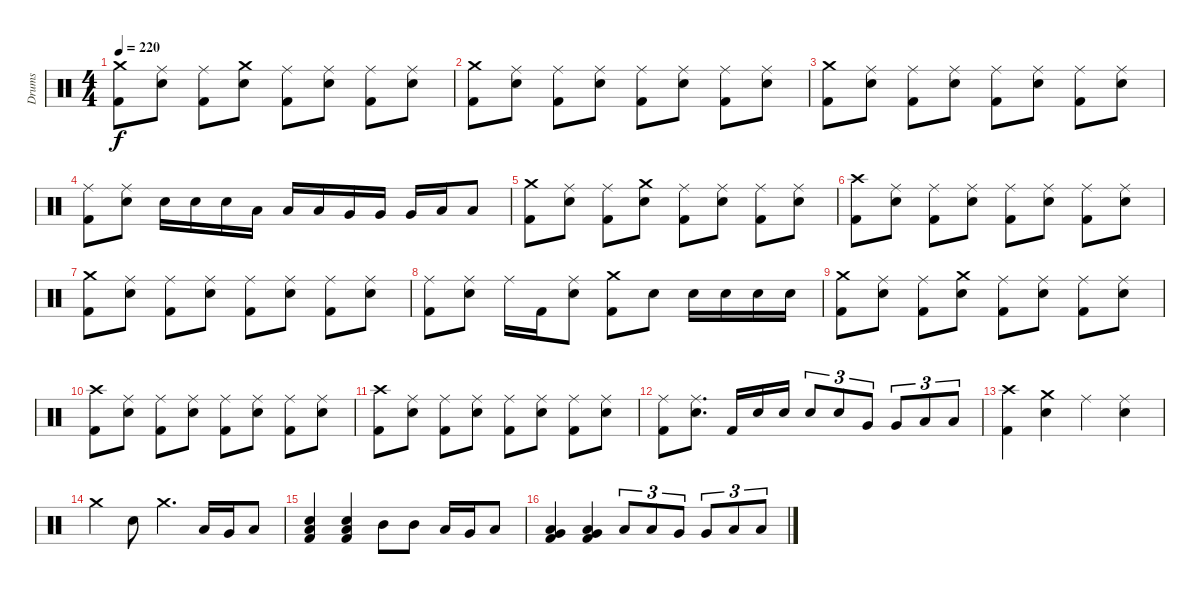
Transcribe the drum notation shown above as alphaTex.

\track ("Drums" "Drums") {instrument percussion}
\staff {score}
\articulation defaults
\ts (4 4)
\tempo 220
\clef neutral
\ks c
("Crash medium (hit)" "Kick (hit) 2").8{dy f} ("Ride (middle)" "Electric Snare (hit)").8 ("Ride (middle)" "Kick (hit) 2").8 ("Crash medium (hit)" "Electric Snare (hit)").8 ("Ride (middle)" "Kick (hit) 2").8 ("Ride (middle)" "Electric Snare (hit)").8 ("Ride (middle)" "Kick (hit) 2").8 ("Ride (middle)" "Electric Snare (hit)").8 |
("Crash medium (hit)" "Kick (hit) 2").8 ("Ride (middle)" "Electric Snare (hit)").8 ("Ride (middle)" "Kick (hit) 2").8 ("Ride (middle)" "Electric Snare (hit)").8 ("Ride (middle)" "Kick (hit) 2").8 ("Ride (middle)" "Electric Snare (hit)").8 ("Ride (middle)" "Kick (hit) 2").8 ("Ride (middle)" "Electric Snare (hit)").8 |
("Crash medium (hit)" "Kick (hit) 2").8 ("Ride (middle)" "Electric Snare (hit)").8 ("Ride (middle)" "Kick (hit) 2").8 ("Ride (middle)" "Electric Snare (hit)").8 ("Ride (middle)" "Kick (hit) 2").8 ("Ride (middle)" "Electric Snare (hit)").8 ("Ride (middle)" "Kick (hit) 2").8 ("Ride (middle)" "Electric Snare (hit)").8 |
("Ride (middle)" "Kick (hit) 2").8 ("Ride (middle)" "Electric Snare (hit)").8 "Electric Snare (hit)".16 "Electric Snare (hit)".16 "Electric Snare (hit)".16 "Low Tom (hit)".16 "Low Tom (hit)".16 "Low Tom (hit)".16 "Very Low Tom (hit)".16 "Very Low Tom (hit)".16 "Very Low Tom (hit)".16 "Low Floor Tom (hit)".16 "Low Floor Tom (hit)".8 |
("Crash medium (hit)" "Kick (hit) 2").8 ("Ride (middle)" "Electric Snare (hit)").8 ("Ride (middle)" "Kick (hit) 2").8 ("Crash medium (hit)" "Electric Snare (hit)").8 ("Ride (middle)" "Kick (hit) 2").8 ("Ride (middle)" "Electric Snare (hit)").8 ("Ride (middle)" "Kick (hit) 2").8 ("Ride (middle)" "Electric Snare (hit)").8 |
("Crash high (hit)" "Kick (hit) 2").8 ("Ride (middle)" "Electric Snare (hit)").8 ("Ride (middle)" "Kick (hit) 2").8 ("Ride (middle)" "Electric Snare (hit)").8 ("Ride (middle)" "Kick (hit) 2").8 ("Ride (middle)" "Electric Snare (hit)").8 ("Ride (middle)" "Kick (hit) 2").8 ("Ride (middle)" "Electric Snare (hit)").8 |
("Crash medium (hit)" "Kick (hit) 2").8 ("Ride (middle)" "Electric Snare (hit)").8 ("Ride (middle)" "Kick (hit) 2").8 ("Ride (middle)" "Electric Snare (hit)").8 ("Ride (middle)" "Kick (hit) 2").8 ("Ride (middle)" "Electric Snare (hit)").8 ("Ride (middle)" "Kick (hit) 2").8 ("Ride (middle)" "Electric Snare (hit)").8 |
("Ride (middle)" "Kick (hit) 2").8 ("Ride (middle)" "Electric Snare (hit)").8 "Ride (middle)".16 "Kick (hit) 2".16 ("Ride (middle)" "Electric Snare (hit)").8 ("Crash medium (hit)" "Kick (hit) 2").8 "Electric Snare (hit)".8 "Electric Snare (hit)".16 "Electric Snare (hit)".16 "Electric Snare (hit)".16 "Electric Snare (hit)".16 |
("Crash medium (hit)" "Kick (hit) 2").8 ("Ride (middle)" "Electric Snare (hit)").8 ("Ride (middle)" "Kick (hit) 2").8 ("Crash medium (hit)" "Electric Snare (hit)").8 ("Ride (middle)" "Kick (hit) 2").8 ("Ride (middle)" "Electric Snare (hit)").8 ("Ride (middle)" "Kick (hit) 2").8 ("Ride (middle)" "Electric Snare (hit)").8 |
("Crash high (hit)" "Kick (hit) 2").8 ("Ride (middle)" "Electric Snare (hit)").8 ("Ride (middle)" "Kick (hit) 2").8 ("Ride (middle)" "Electric Snare (hit)").8 ("Ride (middle)" "Kick (hit) 2").8 ("Ride (middle)" "Electric Snare (hit)").8 ("Ride (middle)" "Kick (hit) 2").8 ("Ride (middle)" "Electric Snare (hit)").8 |
("Crash high (hit)" "Kick (hit) 2").8 ("Ride (middle)" "Electric Snare (hit)").8 ("Ride (middle)" "Kick (hit) 2").8 ("Ride (middle)" "Electric Snare (hit)").8 ("Ride (middle)" "Kick (hit) 2").8 ("Ride (middle)" "Electric Snare (hit)").8 ("Ride (middle)" "Kick (hit) 2").8 ("Ride (middle)" "Electric Snare (hit)").8 |
("Ride (middle)" "Kick (hit) 2").8 ("Ride (middle)" "Electric Snare (hit)").8{d} "Kick (hit) 2".16 "Electric Snare (hit)".16 "Electric Snare (hit)".16 "Electric Snare (hit)".8{tu (3 2)} "Electric Snare (hit)".8{tu (3 2)} "Very Low Tom (hit)".8{tu (3 2)} "Very Low Tom (hit)".8{tu (3 2)} "Low Floor Tom (hit)".8{tu (3 2)} "Low Floor Tom (hit)".8{tu (3 2)} |
("Crash high (hit)" "Kick (hit) 2").4 ("Crash medium (hit)" "Electric Snare (hit)").4 "Ride (middle)".4 ("Ride (middle)" "Electric Snare (hit)").4 |
"Crash medium (hit)".4 "Electric Snare (hit)".8 "Crash medium (hit)".4{d} "Low Tom (hit)".16 "Very Low Tom (hit)".16 "Low Floor Tom (hit)".8 |
("Low Floor Tom (hit)" "Electric Snare (hit)" "Kick (hit) 2").4 ("Low Floor Tom (hit)" "Electric Snare (hit)" "Kick (hit) 2").4 "Mid Tom (hit)".8 "Mid Tom (hit)".8 "Low Tom (hit)".16 "Very Low Tom (hit)".16 "Low Floor Tom (hit)".8 |
("Low Floor Tom (hit)" "Very Low Tom (hit)" "Kick (hit) 2").4 ("Low Floor Tom (hit)" "Very Low Tom (hit)" "Kick (hit) 2").4 "Low Tom (hit)".8{tu (3 2)} "Low Tom (hit)".8{tu (3 2)} "Very Low Tom (hit)".8{tu (3 2)} "Very Low Tom (hit)".8{tu (3 2)} "Low Floor Tom (hit)".8{tu (3 2)} "Low Floor Tom (hit)".8{tu (3 2)}
